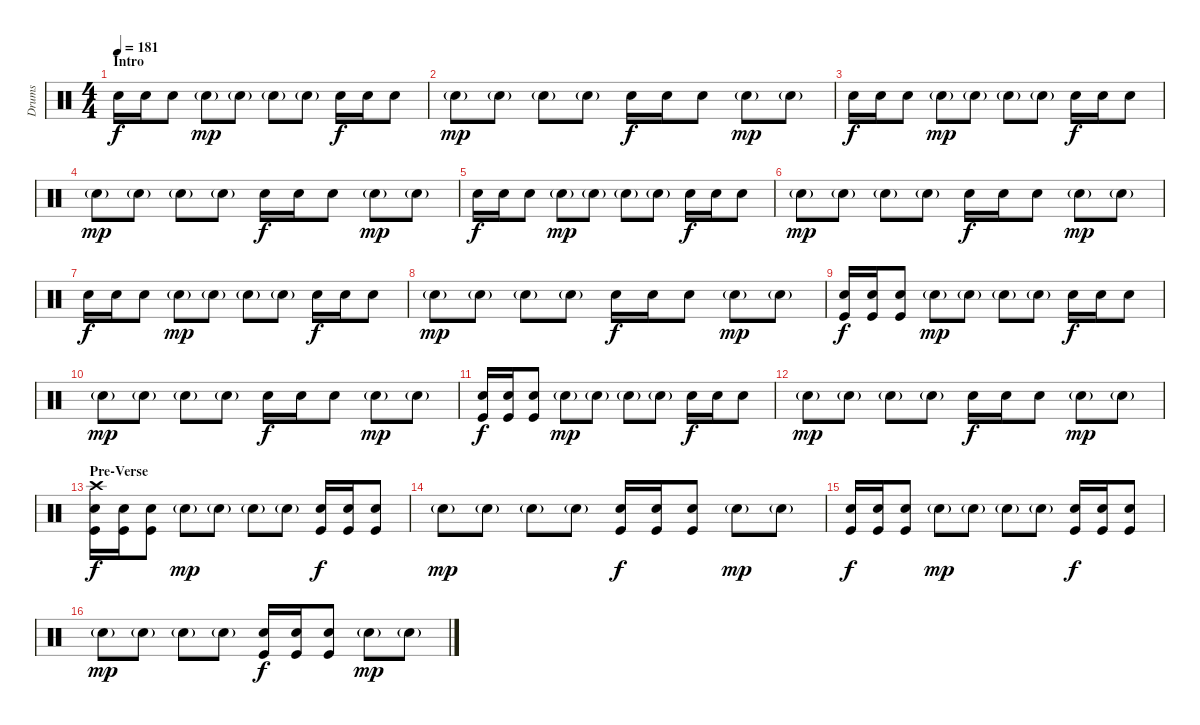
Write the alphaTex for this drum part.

\track ("Drums" "Drums") {instrument percussion}
\staff {score}
\articulation defaults
\ts (4 4)
\section ("" "Intro")
\tempo 181
\clef neutral
\ks c "Snare (hit) 2".16{dy f volume 0} "Snare (hit) 2".16{volume 7} "Snare (hit) 2".8 "Snare (hit) 2"{g}.8{dy mp} "Snare (hit) 2"{g}.8 "Snare (hit) 2"{g}.8 "Snare (hit) 2"{g}.8 "Snare (hit) 2".16{dy f} "Snare (hit) 2".16 "Snare (hit) 2".8
|
"Snare (hit) 2"{g}.8{dy mp} "Snare (hit) 2"{g}.8 "Snare (hit) 2"{g}.8 "Snare (hit) 2"{g}.8 "Snare (hit) 2".16{dy f} "Snare (hit) 2".16 "Snare (hit) 2".8 "Snare (hit) 2"{g}.8{dy mp} "Snare (hit) 2"{g}.8 |
"Snare (hit) 2".16{dy f} "Snare (hit) 2".16 "Snare (hit) 2".8 "Snare (hit) 2"{g}.8{dy mp} "Snare (hit) 2"{g}.8 "Snare (hit) 2"{g}.8 "Snare (hit) 2"{g}.8 "Snare (hit) 2".16{dy f} "Snare (hit) 2".16 "Snare (hit) 2".8 |
"Snare (hit) 2"{g}.8{dy mp} "Snare (hit) 2"{g}.8 "Snare (hit) 2"{g}.8 "Snare (hit) 2"{g}.8 "Snare (hit) 2".16{dy f} "Snare (hit) 2".16 "Snare (hit) 2".8 "Snare (hit) 2"{g}.8{dy mp} "Snare (hit) 2"{g}.8 |
"Snare (hit) 2".16{dy f volume 13} "Snare (hit) 2".16 "Snare (hit) 2".8 "Snare (hit) 2"{g}.8{dy mp} "Snare (hit) 2"{g}.8 "Snare (hit) 2"{g}.8 "Snare (hit) 2"{g}.8 "Snare (hit) 2".16{dy f} "Snare (hit) 2".16 "Snare (hit) 2".8 |
"Snare (hit) 2"{g}.8{dy mp} "Snare (hit) 2"{g}.8 "Snare (hit) 2"{g}.8 "Snare (hit) 2"{g}.8 "Snare (hit) 2".16{dy f} "Snare (hit) 2".16 "Snare (hit) 2".8 "Snare (hit) 2"{g}.8{dy mp} "Snare (hit) 2"{g}.8 |
"Snare (hit) 2".16{dy f} "Snare (hit) 2".16 "Snare (hit) 2".8 "Snare (hit) 2"{g}.8{dy mp} "Snare (hit) 2"{g}.8 "Snare (hit) 2"{g}.8 "Snare (hit) 2"{g}.8 "Snare (hit) 2".16{dy f} "Snare (hit) 2".16 "Snare (hit) 2".8 |
"Snare (hit) 2"{g}.8{dy mp} "Snare (hit) 2"{g}.8 "Snare (hit) 2"{g}.8 "Snare (hit) 2"{g}.8 "Snare (hit) 2".16{dy f} "Snare (hit) 2".16 "Snare (hit) 2".8 "Snare (hit) 2"{g}.8{dy mp} "Snare (hit) 2"{g}.8 |
("Snare (hit) 2" "Kick (hit)").16{dy f} ("Snare (hit) 2" "Kick (hit)").16 ("Snare (hit) 2" "Kick (hit)").8 "Snare (hit) 2"{g}.8{dy mp} "Snare (hit) 2"{g}.8 "Snare (hit) 2"{g}.8 "Snare (hit) 2"{g}.8 "Snare (hit) 2".16{dy f} "Snare (hit) 2".16 "Snare (hit) 2".8 |
"Snare (hit) 2"{g}.8{dy mp} "Snare (hit) 2"{g}.8 "Snare (hit) 2"{g}.8 "Snare (hit) 2"{g}.8 "Snare (hit) 2".16{dy f} "Snare (hit) 2".16 "Snare (hit) 2".8 "Snare (hit) 2"{g}.8{dy mp} "Snare (hit) 2"{g}.8 |
("Snare (hit) 2" "Kick (hit)").16{dy f} ("Snare (hit) 2" "Kick (hit)").16 ("Snare (hit) 2" "Kick (hit)").8 "Snare (hit) 2"{g}.8{dy mp} "Snare (hit) 2"{g}.8 "Snare (hit) 2"{g}.8 "Snare (hit) 2"{g}.8 "Snare (hit) 2".16{dy f} "Snare (hit) 2".16 "Snare (hit) 2".8 |
"Snare (hit) 2"{g}.8{dy mp} "Snare (hit) 2"{g}.8 "Snare (hit) 2"{g}.8 "Snare (hit) 2"{g}.8 "Snare (hit) 2".16{dy f} "Snare (hit) 2".16 "Snare (hit) 2".8 "Snare (hit) 2"{g}.8{dy mp} "Snare (hit) 2"{g}.8 |
\section ("" "Pre-Verse")
("Crash high (hit)" "Snare (hit) 2" "Kick (hit)").16{dy f} ("Snare (hit) 2" "Kick (hit)").16 ("Snare (hit) 2" "Kick (hit)").8 "Snare (hit) 2"{g}.8{dy mp} "Snare (hit) 2"{g}.8 "Snare (hit) 2"{g}.8 "Snare (hit) 2"{g}.8 ("Snare (hit) 2" "Kick (hit)").16{dy f} ("Snare (hit) 2" "Kick (hit)").16 ("Snare (hit) 2" "Kick (hit)").8 |
"Snare (hit) 2"{g}.8{dy mp} "Snare (hit) 2"{g}.8 "Snare (hit) 2"{g}.8 "Snare (hit) 2"{g}.8 ("Snare (hit) 2" "Kick (hit)").16{dy f} ("Snare (hit) 2" "Kick (hit)").16 ("Snare (hit) 2" "Kick (hit)").8 "Snare (hit) 2"{g}.8{dy mp} "Snare (hit) 2"{g}.8 |
("Snare (hit) 2" "Kick (hit)").16{dy f} ("Snare (hit) 2" "Kick (hit)").16 ("Snare (hit) 2" "Kick (hit)").8 "Snare (hit) 2"{g}.8{dy mp} "Snare (hit) 2"{g}.8 "Snare (hit) 2"{g}.8 "Snare (hit) 2"{g}.8 ("Snare (hit) 2" "Kick (hit)").16{dy f} ("Snare (hit) 2" "Kick (hit)").16 ("Snare (hit) 2" "Kick (hit)").8 |
"Snare (hit) 2"{g}.8{dy mp} "Snare (hit) 2"{g}.8 "Snare (hit) 2"{g}.8 "Snare (hit) 2"{g}.8 ("Snare (hit) 2" "Kick (hit)").16{dy f} ("Snare (hit) 2" "Kick (hit)").16 ("Snare (hit) 2" "Kick (hit)").8 "Snare (hit) 2"{g}.8{dy mp} "Snare (hit) 2"{g}.8
